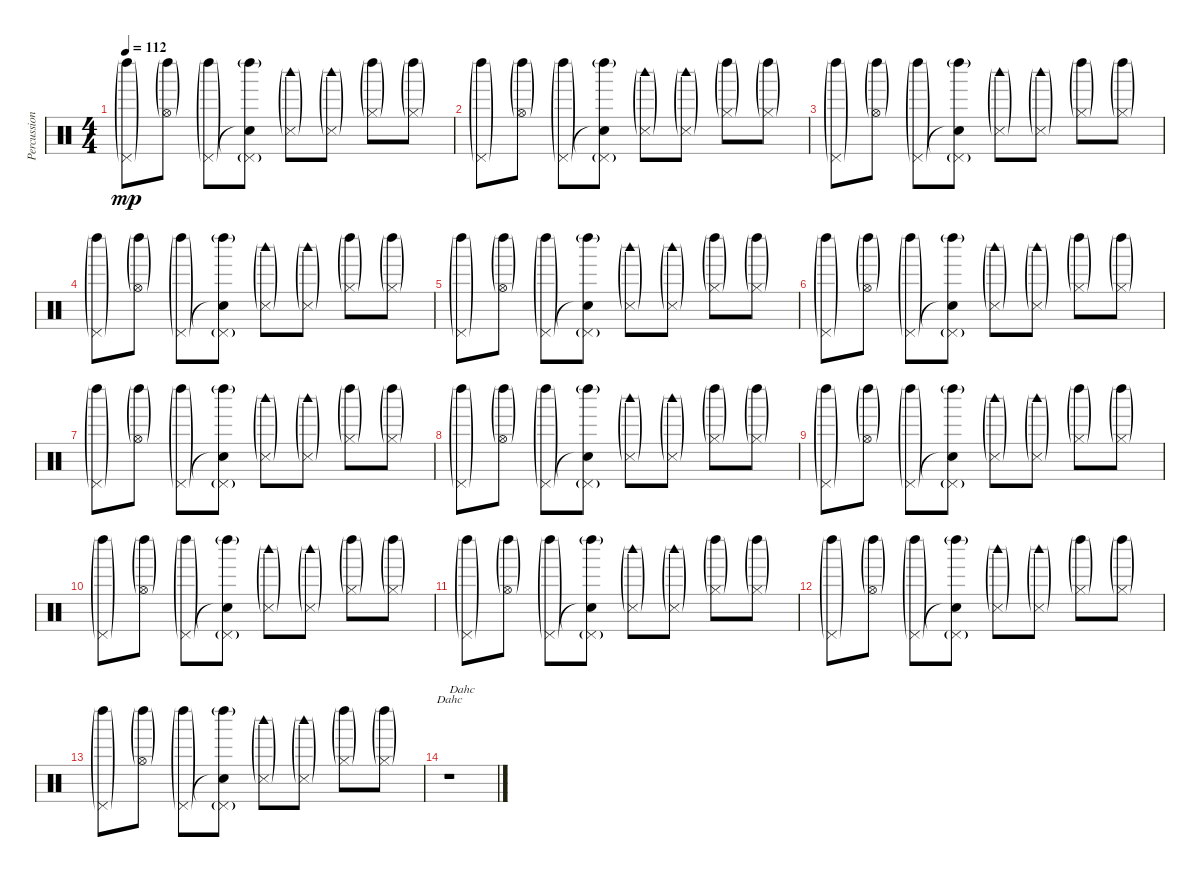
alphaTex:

\track ("Percussion" "Percussion") {instrument percussion}
\staff {score}
\articulation defaults
\chord ("Dahc")
\ts (4 4)
\tempo 112
\clef neutral
\ks c
("Left Maraca (hit)"{g} "Pedal Hi-Hat (hit)"{g}).8{dy mp} ("Left Maraca (hit)"{g} "Hi-Hat (open)"{g}).8 ("Left Maraca (hit)"{g} "Pedal Hi-Hat (hit)"{g}).8 ("Left Maraca (hit)"{g} "Snare (hit)"{t} "Pedal Hi-Hat (hit)"{g}).8 ("Snare (side stick) 3"{g} "Woodblock high (hit)"{g}).8 ("Snare (side stick) 3"{g} "Woodblock high (hit)"{g}).8 ("Left Maraca (hit)"{g} "Hi-Hat (closed)"{g}).8 ("Left Maraca (hit)"{g} "Hi-Hat (closed)"{g}).8 |
("Left Maraca (hit)"{g} "Pedal Hi-Hat (hit)"{g}).8 ("Left Maraca (hit)"{g} "Hi-Hat (open)"{g}).8 ("Left Maraca (hit)"{g} "Pedal Hi-Hat (hit)"{g}).8 ("Left Maraca (hit)"{g} "Snare (hit)"{t} "Pedal Hi-Hat (hit)"{g}).8 ("Snare (side stick) 3"{g} "Woodblock high (hit)"{g}).8 ("Snare (side stick) 3"{g} "Woodblock high (hit)"{g}).8 ("Left Maraca (hit)"{g} "Hi-Hat (closed)"{g}).8 ("Left Maraca (hit)"{g} "Hi-Hat (closed)"{g}).8 |
("Left Maraca (hit)"{g} "Pedal Hi-Hat (hit)"{g}).8 ("Left Maraca (hit)"{g} "Hi-Hat (open)"{g}).8 ("Left Maraca (hit)"{g} "Pedal Hi-Hat (hit)"{g}).8 ("Left Maraca (hit)"{g} "Snare (hit)"{t} "Pedal Hi-Hat (hit)"{g}).8 ("Snare (side stick) 3"{g} "Woodblock high (hit)"{g}).8 ("Snare (side stick) 3"{g} "Woodblock high (hit)"{g}).8 ("Left Maraca (hit)"{g} "Hi-Hat (closed)"{g}).8 ("Left Maraca (hit)"{g} "Hi-Hat (closed)"{g}).8 |
("Left Maraca (hit)"{g} "Pedal Hi-Hat (hit)"{g}).8 ("Left Maraca (hit)"{g} "Hi-Hat (open)"{g}).8 ("Left Maraca (hit)"{g} "Pedal Hi-Hat (hit)"{g}).8 ("Left Maraca (hit)"{g} "Snare (hit)"{t} "Pedal Hi-Hat (hit)"{g}).8 ("Snare (side stick) 3"{g} "Woodblock high (hit)"{g}).8 ("Snare (side stick) 3"{g} "Woodblock high (hit)"{g}).8 ("Left Maraca (hit)"{g} "Hi-Hat (closed)"{g}).8 ("Left Maraca (hit)"{g} "Hi-Hat (closed)"{g}).8 |
("Left Maraca (hit)"{g} "Pedal Hi-Hat (hit)"{g}).8 ("Left Maraca (hit)"{g} "Hi-Hat (open)"{g}).8 ("Left Maraca (hit)"{g} "Pedal Hi-Hat (hit)"{g}).8 ("Left Maraca (hit)"{g} "Snare (hit)"{t} "Pedal Hi-Hat (hit)"{g}).8 ("Snare (side stick) 3"{g} "Woodblock high (hit)"{g}).8 ("Snare (side stick) 3"{g} "Woodblock high (hit)"{g}).8 ("Left Maraca (hit)"{g} "Hi-Hat (closed)"{g}).8 ("Left Maraca (hit)"{g} "Hi-Hat (closed)"{g}).8 |
("Left Maraca (hit)"{g} "Pedal Hi-Hat (hit)"{g}).8 ("Left Maraca (hit)"{g} "Hi-Hat (open)"{g}).8 ("Left Maraca (hit)"{g} "Pedal Hi-Hat (hit)"{g}).8 ("Left Maraca (hit)"{g} "Snare (hit)"{t} "Pedal Hi-Hat (hit)"{g}).8 ("Snare (side stick) 3"{g} "Woodblock high (hit)"{g}).8 ("Snare (side stick) 3"{g} "Woodblock high (hit)"{g}).8 ("Left Maraca (hit)"{g} "Hi-Hat (closed)"{g}).8 ("Left Maraca (hit)"{g} "Hi-Hat (closed)"{g}).8 |
("Left Maraca (hit)"{g} "Pedal Hi-Hat (hit)"{g}).8 ("Left Maraca (hit)"{g} "Hi-Hat (open)"{g}).8 ("Left Maraca (hit)"{g} "Pedal Hi-Hat (hit)"{g}).8 ("Left Maraca (hit)"{g} "Snare (hit)"{t} "Pedal Hi-Hat (hit)"{g}).8 ("Snare (side stick) 3"{g} "Woodblock high (hit)"{g}).8 ("Snare (side stick) 3"{g} "Woodblock high (hit)"{g}).8 ("Left Maraca (hit)"{g} "Hi-Hat (closed)"{g}).8 ("Left Maraca (hit)"{g} "Hi-Hat (closed)"{g}).8 |
("Left Maraca (hit)"{g} "Pedal Hi-Hat (hit)"{g}).8 ("Left Maraca (hit)"{g} "Hi-Hat (open)"{g}).8 ("Left Maraca (hit)"{g} "Pedal Hi-Hat (hit)"{g}).8 ("Left Maraca (hit)"{g} "Snare (hit)"{t} "Pedal Hi-Hat (hit)"{g}).8 ("Snare (side stick) 3"{g} "Woodblock high (hit)"{g}).8 ("Snare (side stick) 3"{g} "Woodblock high (hit)"{g}).8 ("Left Maraca (hit)"{g} "Hi-Hat (closed)"{g}).8 ("Left Maraca (hit)"{g} "Hi-Hat (closed)"{g}).8 |
("Left Maraca (hit)"{g} "Pedal Hi-Hat (hit)"{g}).8{volume 0} ("Left Maraca (hit)"{g} "Hi-Hat (open)"{g}).8 ("Left Maraca (hit)"{g} "Pedal Hi-Hat (hit)"{g}).8 ("Left Maraca (hit)"{g} "Snare (hit)"{t} "Pedal Hi-Hat (hit)"{g}).8 ("Snare (side stick) 3"{g} "Woodblock high (hit)"{g}).8 ("Snare (side stick) 3"{g} "Woodblock high (hit)"{g}).8 ("Left Maraca (hit)"{g} "Hi-Hat (closed)"{g}).8 ("Left Maraca (hit)"{g} "Hi-Hat (closed)"{g}).8 |
("Left Maraca (hit)"{g} "Pedal Hi-Hat (hit)"{g}).8 ("Left Maraca (hit)"{g} "Hi-Hat (open)"{g}).8 ("Left Maraca (hit)"{g} "Pedal Hi-Hat (hit)"{g}).8 ("Left Maraca (hit)"{g} "Snare (hit)"{t} "Pedal Hi-Hat (hit)"{g}).8 ("Snare (side stick) 3"{g} "Woodblock high (hit)"{g}).8 ("Snare (side stick) 3"{g} "Woodblock high (hit)"{g}).8 ("Left Maraca (hit)"{g} "Hi-Hat (closed)"{g}).8 ("Left Maraca (hit)"{g} "Hi-Hat (closed)"{g}).8 |
("Left Maraca (hit)"{g} "Pedal Hi-Hat (hit)"{g}).8 ("Left Maraca (hit)"{g} "Hi-Hat (open)"{g}).8 ("Left Maraca (hit)"{g} "Pedal Hi-Hat (hit)"{g}).8 ("Left Maraca (hit)"{g} "Snare (hit)"{t} "Pedal Hi-Hat (hit)"{g}).8 ("Snare (side stick) 3"{g} "Woodblock high (hit)"{g}).8 ("Snare (side stick) 3"{g} "Woodblock high (hit)"{g}).8 ("Left Maraca (hit)"{g} "Hi-Hat (closed)"{g}).8 ("Left Maraca (hit)"{g} "Hi-Hat (closed)"{g}).8 |
("Left Maraca (hit)"{g} "Pedal Hi-Hat (hit)"{g}).8 ("Left Maraca (hit)"{g} "Hi-Hat (open)"{g}).8 ("Left Maraca (hit)"{g} "Pedal Hi-Hat (hit)"{g}).8 ("Left Maraca (hit)"{g} "Snare (hit)"{t} "Pedal Hi-Hat (hit)"{g}).8 ("Snare (side stick) 3"{g} "Woodblock high (hit)"{g}).8 ("Snare (side stick) 3"{g} "Woodblock high (hit)"{g}).8 ("Left Maraca (hit)"{g} "Hi-Hat (closed)"{g}).8 ("Left Maraca (hit)"{g} "Hi-Hat (closed)"{g}).8 |
("Left Maraca (hit)"{g} "Pedal Hi-Hat (hit)"{g}).8 ("Left Maraca (hit)"{g} "Hi-Hat (open)"{g}).8 ("Left Maraca (hit)"{g} "Pedal Hi-Hat (hit)"{g}).8 ("Left Maraca (hit)"{g} "Snare (hit)"{t} "Pedal Hi-Hat (hit)"{g}).8 ("Snare (side stick) 3"{g} "Woodblock high (hit)"{g}).8 ("Snare (side stick) 3"{g} "Woodblock high (hit)"{g}).8 ("Left Maraca (hit)"{g} "Hi-Hat (closed)"{g}).8 ("Left Maraca (hit)"{g} "Hi-Hat (closed)"{g}).8 |
r.1{ch "Dahc" txt "Dahc"}
